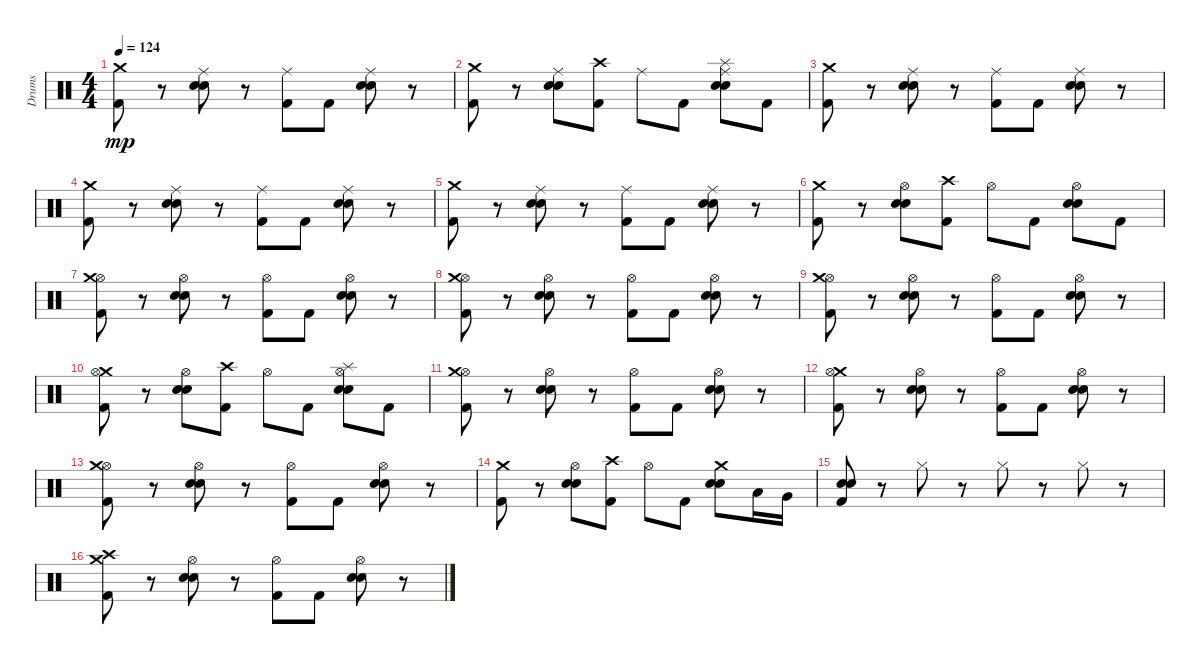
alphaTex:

\track ("Drums" "Drums") {instrument percussion}
\staff {score}
\articulation defaults
\ts (4 4)
\tempo 124
\clef neutral
\ks c
("Kick (hit) 2" "Crash medium (hit)").8{dy mp} r.8 ("Snare (hit) 2" "Electric Snare (hit)" "Ride (middle)").8 r.8 ("Ride (middle)" "Kick (hit) 2").8 "Kick (hit) 2".8 ("Ride (middle)" "Snare (hit) 2" "Electric Snare (hit)").8 r.8 |
("Crash medium (hit)" "Kick (hit) 2").8 r.8 ("Electric Snare (hit)" "Ride (middle)" "Snare (hit) 2").8 ("Crash high (hit)" "Kick (hit) 2").8 "Ride (middle)".8 "Kick (hit) 2".8 ("Ride (middle)" "Snare (hit) 2" "Splash (hit)" "Electric Snare (hit)").8 "Kick (hit) 2".8 |
("Kick (hit) 2" "Crash medium (hit)").8 r.8 ("Electric Snare (hit)" "Ride (middle)" "Snare (hit) 2").8 r.8 ("Kick (hit) 2" "Ride (middle)").8 "Kick (hit) 2".8 ("Snare (hit) 2" "Ride (middle)" "Electric Snare (hit)").8 r.8 |
("Crash medium (hit)" "Kick (hit) 2").8 r.8 ("Snare (hit) 2" "Ride (middle)" "Electric Snare (hit)").8 r.8 ("Ride (middle)" "Kick (hit) 2").8 "Kick (hit) 2".8 ("Electric Snare (hit)" "Snare (hit) 2" "Ride (middle)").8 r.8 |
("Crash medium (hit)" "Kick (hit) 2").8 r.8 ("Snare (hit) 2" "Electric Snare (hit)" "Ride (middle)").8 r.8 ("Kick (hit) 2" "Ride (middle)").8 "Kick (hit) 2".8 ("Electric Snare (hit)" "Ride (middle)" "Snare (hit) 2").8 r.8 |
("Kick (hit) 2" "Crash medium (hit)").8 r.8 ("Hi-Hat (open)" "Electric Snare (hit)" "Snare (hit) 2").8 ("Kick (hit) 2" "Crash high (hit)").8 "Hi-Hat (open)".8 "Kick (hit) 2".8 ("Hi-Hat (open)" "Snare (hit) 2" "Electric Snare (hit)").8 "Kick (hit) 2".8 |
("Kick (hit) 2" "Hi-Hat (open)" "Crash medium (hit)").8 r.8 ("Hi-Hat (open)" "Snare (hit) 2" "Electric Snare (hit)").8 r.8 ("Hi-Hat (open)" "Kick (hit) 2").8 "Kick (hit) 2".8 ("Electric Snare (hit)" "Hi-Hat (open)" "Snare (hit) 2").8 r.8 |
("Hi-Hat (open)" "Kick (hit) 2" "Crash medium (hit)").8 r.8 ("Snare (hit) 2" "Hi-Hat (open)" "Electric Snare (hit)").8 r.8 ("Kick (hit) 2" "Hi-Hat (open)").8 "Kick (hit) 2".8 ("Snare (hit) 2" "Electric Snare (hit)" "Hi-Hat (open)").8 r.8 |
("Hi-Hat (open)" "Crash medium (hit)" "Kick (hit) 2").8 r.8 ("Electric Snare (hit)" "Snare (hit) 2" "Hi-Hat (open)").8 r.8 ("Hi-Hat (open)" "Kick (hit) 2").8 "Kick (hit) 2".8 ("Electric Snare (hit)" "Snare (hit) 2" "Hi-Hat (open)").8 r.8 |
("Kick (hit) 2" "Crash medium (hit)" "Hi-Hat (open)").8 r.8 ("Hi-Hat (open)" "Snare (hit) 2" "Electric Snare (hit)").8 ("Kick (hit) 2" "Crash high (hit)").8 "Hi-Hat (open)".8 "Kick (hit) 2".8 ("Snare (hit) 2" "Hi-Hat (open)" "Splash (hit)" "Electric Snare (hit)").8 "Kick (hit) 2".8 |
("Hi-Hat (open)" "Crash medium (hit)" "Kick (hit) 2").8 r.8 ("Snare (hit) 2" "Hi-Hat (open)" "Electric Snare (hit)").8 r.8 ("Kick (hit) 2" "Hi-Hat (open)").8 "Kick (hit) 2".8 ("Snare (hit) 2" "Electric Snare (hit)" "Hi-Hat (open)").8 r.8 |
("Kick (hit) 2" "Crash medium (hit)" "Hi-Hat (open)").8 r.8 ("Electric Snare (hit)" "Hi-Hat (open)" "Snare (hit) 2").8 r.8 ("Kick (hit) 2" "Hi-Hat (open)").8 "Kick (hit) 2".8 ("Electric Snare (hit)" "Snare (hit) 2" "Hi-Hat (open)").8 r.8 |
("Hi-Hat (open)" "Kick (hit) 2" "Crash medium (hit)").8 r.8 ("Hi-Hat (open)" "Snare (hit) 2" "Electric Snare (hit)").8 r.8 ("Hi-Hat (open)" "Kick (hit) 2").8 "Kick (hit) 2".8 ("Snare (hit) 2" "Electric Snare (hit)" "Hi-Hat (open)").8 r.8 |
("Kick (hit) 2" "Crash medium (hit)").8 r.8 ("Snare (hit) 2" "Electric Snare (hit)" "Hi-Hat (open)").8 ("Kick (hit) 2" "Crash high (hit)").8 "Hi-Hat (open)".8 "Kick (hit) 2".8 ("Snare (hit) 2" "Electric Snare (hit)" "Crash medium (hit)").8 "Low Tom (hit)".16 "Very Low Tom (hit)".16 |
("Kick (hit) 2" "Snare (hit) 2" "Electric Snare (hit)").8 r.8 "Hi-Hat (closed)".8 r.8 "Hi-Hat (closed)".8 r.8 "Hi-Hat (closed)".8 r.8 |
("Kick (hit) 2" "Crash medium (hit)" "Crash high (hit)").8 r.8 ("Electric Snare (hit)" "Snare (hit) 2" "Hi-Hat (open)").8 r.8 ("Hi-Hat (open)" "Kick (hit) 2").8 "Kick (hit) 2".8 ("Snare (hit) 2" "Hi-Hat (open)" "Electric Snare (hit)").8 r.8
